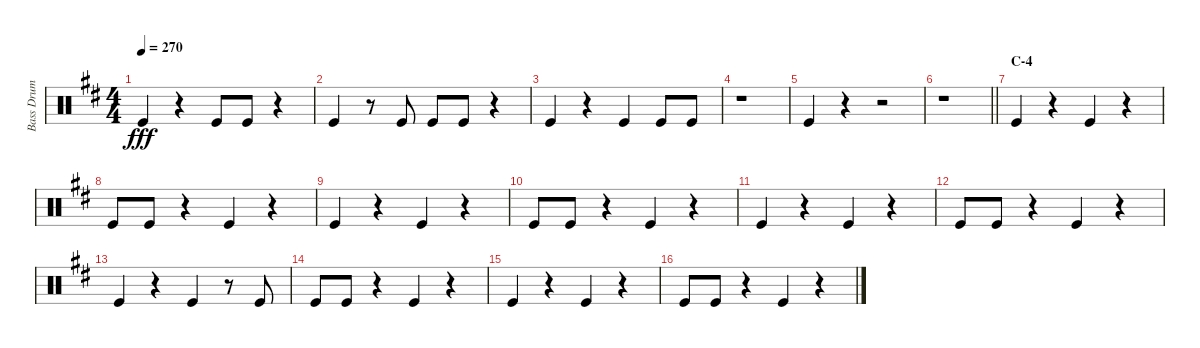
\track ("Bass Drum" "Bass Drum") {instrument percussion}
\staff {score}
\articulation defaults
\ts (4 4)
\tempo 270
\clef neutral
\ks d "Kick (hit)".4{dy fff}
r.4 "Kick (hit)".8 "Kick (hit)".8 r.4 |
"Kick (hit)".4 r.8 "Kick (hit)".8 "Kick (hit)".8 "Kick (hit)".8 r.4 |
"Kick (hit)".4 r.4 "Kick (hit)".4 "Kick (hit)".8 "Kick (hit)".8 |
r.1 |
"Kick (hit)".4 r.4 r.2 |
\barLineRight lightlight
r.1 |
\section ("" "C-4")
"Kick (hit)".4 r.4 "Kick (hit)".4 r.4 |
"Kick (hit)".8 "Kick (hit)".8 r.4 "Kick (hit)".4 r.4 |
"Kick (hit)".4 r.4 "Kick (hit)".4 r.4 |
"Kick (hit)".8 "Kick (hit)".8 r.4 "Kick (hit)".4 r.4 |
"Kick (hit)".4 r.4 "Kick (hit)".4 r.4 |
"Kick (hit)".8 "Kick (hit)".8 r.4 "Kick (hit)".4 r.4 |
"Kick (hit)".4 r.4 "Kick (hit)".4 r.8 "Kick (hit)".8 |
"Kick (hit)".8 "Kick (hit)".8 r.4 "Kick (hit)".4 r.4 |
"Kick (hit)".4 r.4 "Kick (hit)".4 r.4 |
"Kick (hit)".8 "Kick (hit)".8 r.4 "Kick (hit)".4 r.4
